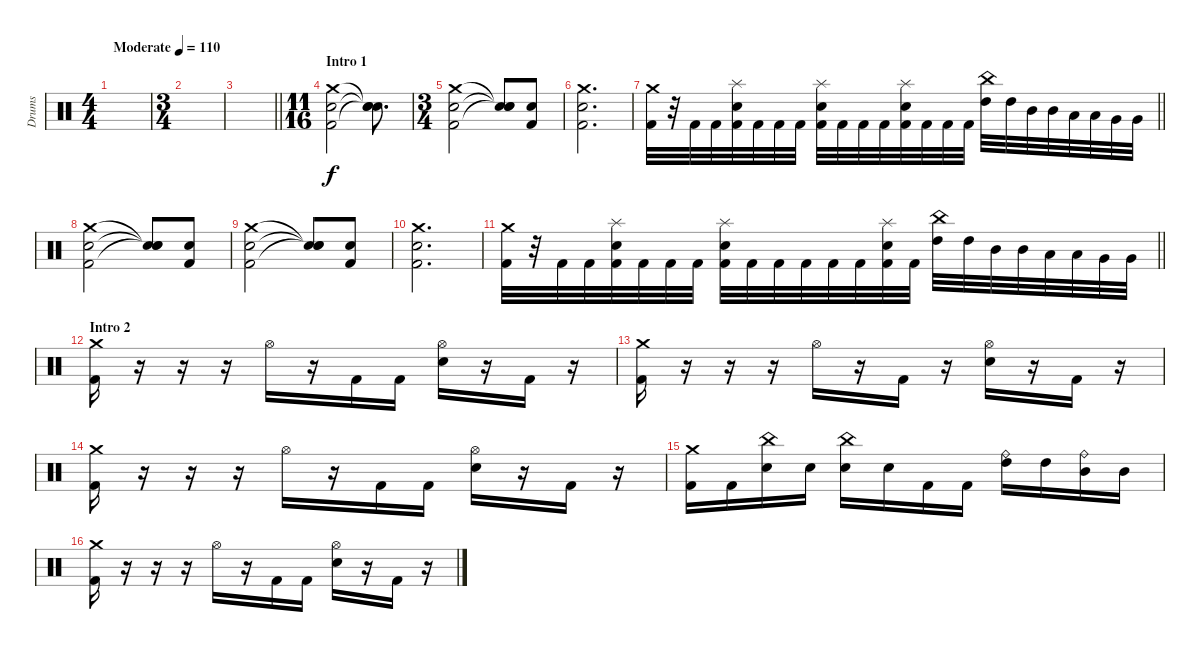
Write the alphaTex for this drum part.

\track ("Drums" "Drums") {instrument percussion}
\staff
\articulation defaults
\ts (4 4)
\tempo (110 "Moderate")
\clef neutral
\ks c
|
\ts (3 4)
|
\barLineRight lightlight
|
\ts (11 16)
\section ("" "Intro 1")
("Crash medium (hit)" "Electric Snare (hit)" "Kick (hit) 2").2 ("Snare (hit)"{t} "Snare (hit)"{t} "Snare (hit)"{t}).8{d} |
\ts (3 4)
("Crash medium (hit)" "Electric Snare (hit)" "Kick (hit) 2").2 ("Snare (hit)"{t} "Snare (hit)"{t} "Snare (hit)"{t}).8 ("Electric Snare (hit)" "Kick (hit) 2").8 |
("Crash medium (hit)" "Electric Snare (hit)" "Kick (hit) 2").2{d} |
\barLineRight lightlight
("Crash medium (hit)" "Kick (hit) 2").32 r.32 "Kick (hit) 2".32 "Kick (hit) 2".32 ("Splash (hit)" "Electric Snare (hit)" "Kick (hit) 2").32 "Kick (hit) 2".32 "Kick (hit) 2".32 "Kick (hit) 2".32 ("Splash (hit)" "Electric Snare (hit)" "Kick (hit) 2").32 "Kick (hit) 2".32 "Kick (hit) 2".32 "Kick (hit) 2".32 ("Splash (hit)" "Electric Snare (hit)" "Kick (hit) 2").32 "Kick (hit) 2".32 "Kick (hit) 2".32 "Kick (hit) 2".32 ("High Tom (hit)" "China (hit)").32 "High Tom (hit)".32 "Mid Tom (hit)".32 "Mid Tom (hit)".32 "Low Tom (hit)".32 "Low Tom (hit)".32 "Very Low Tom (hit)".32 "Very Low Tom (hit)".32 |
("Crash medium (hit)" "Electric Snare (hit)" "Kick (hit) 2").2 ("Snare (hit)"{t} "Snare (hit)"{t} "Snare (hit)"{t}).8 ("Electric Snare (hit)" "Kick (hit) 2").8 |
("Crash medium (hit)" "Electric Snare (hit)" "Kick (hit) 2").2 ("Snare (hit)"{t} "Snare (hit)"{t} "Snare (hit)"{t}).8 ("Electric Snare (hit)" "Kick (hit) 2").8 |
("Crash medium (hit)" "Electric Snare (hit)" "Kick (hit) 2").2{d} |
\barLineRight lightlight
("Crash medium (hit)" "Kick (hit) 2").32 r.32 "Kick (hit) 2".32 "Kick (hit) 2".32 ("Splash (hit)" "Electric Snare (hit)" "Kick (hit) 2").32 "Kick (hit) 2".32 "Kick (hit) 2".32 "Kick (hit) 2".32 ("Splash (hit)" "Electric Snare (hit)" "Kick (hit) 2").32 "Kick (hit) 2".32 "Kick (hit) 2".32 "Kick (hit) 2".32 "Kick (hit) 2".32 "Kick (hit) 2".32 ("Splash (hit)" "Electric Snare (hit)" "Kick (hit) 2").32 "Kick (hit) 2".32 ("High Tom (hit)" "China (hit)").32 "High Tom (hit)".32 "Mid Tom (hit)".32 "Mid Tom (hit)".32 "Low Tom (hit)".32 "Low Tom (hit)".32 "Very Low Tom (hit)".32 "Very Low Tom (hit)".32 |
\section ("" "Intro 2")
("Crash medium (hit)" "Kick (hit) 2").16 r.16 r.16 r.16 "Hi-Hat (open)".16 r.16 "Kick (hit) 2".16 "Kick (hit) 2".16 ("Hi-Hat (open)" "Electric Snare (hit)").16 r.16 "Kick (hit) 2".16 r.16 |
("Crash medium (hit)" "Kick (hit) 2").16 r.16 r.16 r.16 "Hi-Hat (open)".16 r.16 "Kick (hit) 2".16 r.16 ("Hi-Hat (open)" "Electric Snare (hit)").16 r.16 "Kick (hit) 2".16 r.16 |
("Crash medium (hit)" "Kick (hit) 2").16 r.16 r.16 r.16 "Hi-Hat (open)".16 r.16 "Kick (hit) 2".16 "Kick (hit) 2".16 ("Hi-Hat (open)" "Electric Snare (hit)").16 r.16 "Kick (hit) 2".16 r.16 |
("Crash medium (hit)" "Kick (hit) 2").16 "Kick (hit) 2".16 ("China (hit)" "Electric Snare (hit)").16 "Electric Snare (hit)".16 ("China (hit)" "Electric Snare (hit)").16 "Electric Snare (hit)".16 "Kick (hit) 2".16 "Kick (hit) 2".16 ("Ride (bell)" "High Tom (hit)").16 "High Tom (hit)".16 ("Ride (bell)" "Mid Tom (hit)").16 "Mid Tom (hit)".16 |
("Crash medium (hit)" "Kick (hit) 2").16 r.16 r.16 r.16 "Hi-Hat (open)".16 r.16 "Kick (hit) 2".16 "Kick (hit) 2".16 ("Hi-Hat (open)" "Electric Snare (hit)").16 r.16 "Kick (hit) 2".16 r.16
